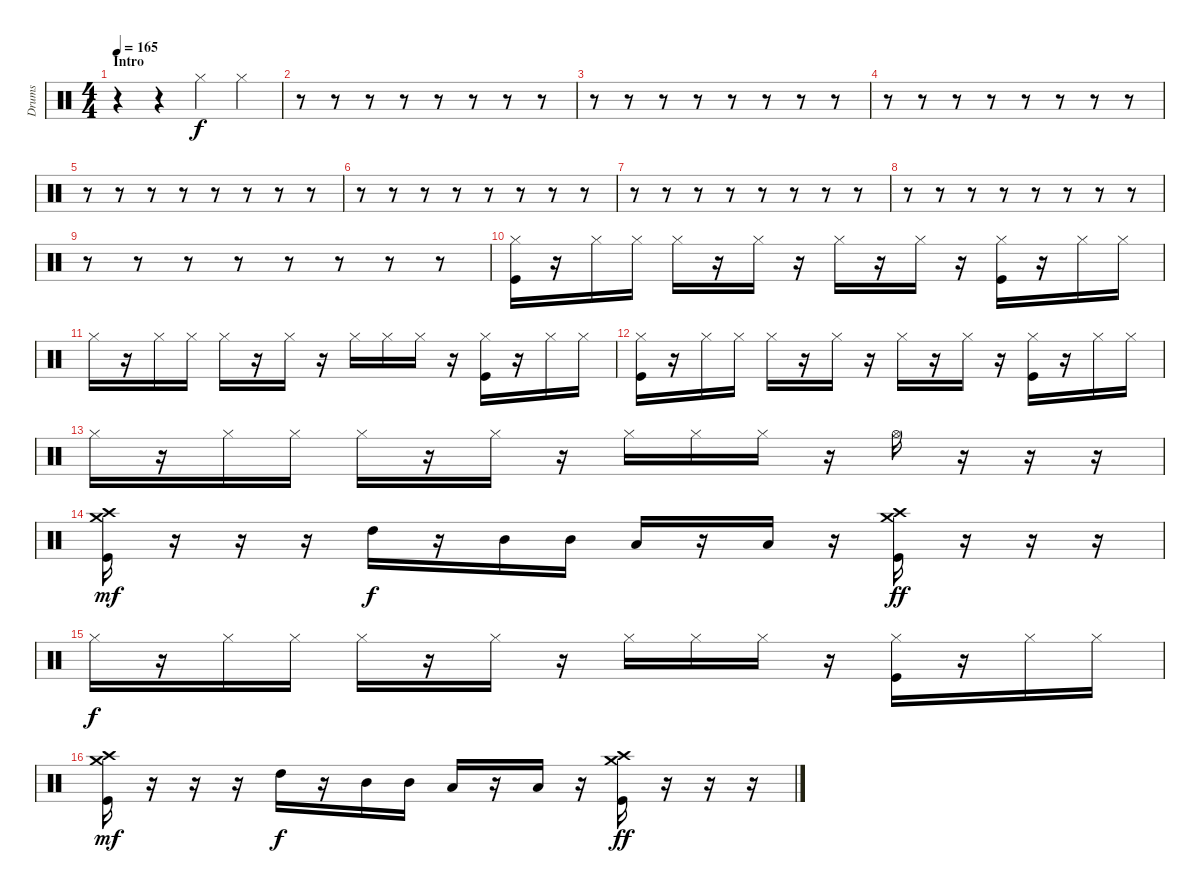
\track ("Drums" "Drums") {instrument percussion}
\staff {score}
\articulation defaults
\ts (4 4)
\section ("" "Intro")
\tempo 165
\clef neutral
\ks c
r.4{dy f} r.4 "Hi-Hat (closed)".4 "Hi-Hat (closed)".4 |
r.8 r.8 r.8 r.8 r.8 r.8 r.8 r.8 |
r.8 r.8 r.8 r.8 r.8 r.8 r.8 r.8 |
r.8 r.8 r.8 r.8 r.8 r.8 r.8 r.8 |
r.8 r.8 r.8 r.8 r.8 r.8 r.8 r.8 |
r.8 r.8 r.8 r.8 r.8 r.8 r.8 r.8 |
r.8 r.8 r.8 r.8 r.8 r.8 r.8 r.8 |
r.8 r.8 r.8 r.8 r.8 r.8 r.8 r.8 |
r.8 r.8 r.8 r.8 r.8 r.8 r.8 r.8 |
("Hi-Hat (closed)" "Kick (hit)").16 r.16 "Hi-Hat (closed)".16 "Hi-Hat (closed)".16 "Hi-Hat (closed)".16 r.16 "Hi-Hat (closed)".16 r.16 "Hi-Hat (closed)".16 r.16 "Hi-Hat (closed)".16 r.16 ("Hi-Hat (closed)" "Kick (hit)").16 r.16 "Hi-Hat (closed)".16 "Hi-Hat (closed)".16 |
"Hi-Hat (closed)".16 r.16 "Hi-Hat (closed)".16 "Hi-Hat (closed)".16 "Hi-Hat (closed)".16 r.16 "Hi-Hat (closed)".16 r.16 "Hi-Hat (closed)".16 "Hi-Hat (closed)".16 "Hi-Hat (closed)".16 r.16 ("Hi-Hat (closed)" "Kick (hit)").16 r.16 "Hi-Hat (closed)".16 "Hi-Hat (closed)".16 |
("Hi-Hat (closed)" "Kick (hit)").16 r.16 "Hi-Hat (closed)".16 "Hi-Hat (closed)".16 "Hi-Hat (closed)".16 r.16 "Hi-Hat (closed)".16 r.16 "Hi-Hat (closed)".16 r.16 "Hi-Hat (closed)".16 r.16 ("Hi-Hat (closed)" "Kick (hit)").16 r.16 "Hi-Hat (closed)".16 "Hi-Hat (closed)".16 |
"Hi-Hat (closed)".16 r.16 "Hi-Hat (closed)".16 "Hi-Hat (closed)".16 "Hi-Hat (closed)".16 r.16 "Hi-Hat (closed)".16 r.16 "Hi-Hat (closed)".16 "Hi-Hat (closed)".16 "Hi-Hat (closed)".16 r.16 "Hi-Hat (open)".16 r.16 r.16 r.16 |
("Crash high (hit)" "Crash medium (hit)" "Kick (hit)").16{dy mf} r.16 r.16 r.16 "High Tom (hit)".16{dy f} r.16 "Mid Tom (hit)".16 "Mid Tom (hit)".16 "Low Tom (hit)".16 r.16 "Low Tom (hit)".16 r.16 ("Crash high (hit)" "Crash medium (hit)" "Kick (hit)").16{dy ff} r.16 r.16 r.16 |
"Hi-Hat (closed)".16{dy f} r.16 "Hi-Hat (closed)".16 "Hi-Hat (closed)".16 "Hi-Hat (closed)".16 r.16 "Hi-Hat (closed)".16 r.16 "Hi-Hat (closed)".16 "Hi-Hat (closed)".16 "Hi-Hat (closed)".16 r.16 ("Hi-Hat (closed)" "Kick (hit)").16 r.16 "Hi-Hat (closed)".16 "Hi-Hat (closed)".16 |
("Crash high (hit)" "Crash medium (hit)" "Kick (hit)").16{dy mf} r.16 r.16 r.16 "High Tom (hit)".16{dy f} r.16 "Mid Tom (hit)".16 "Mid Tom (hit)".16 "Low Tom (hit)".16 r.16 "Low Tom (hit)".16 r.16 ("Crash high (hit)" "Crash medium (hit)" "Kick (hit)").16{dy ff} r.16 r.16 r.16
